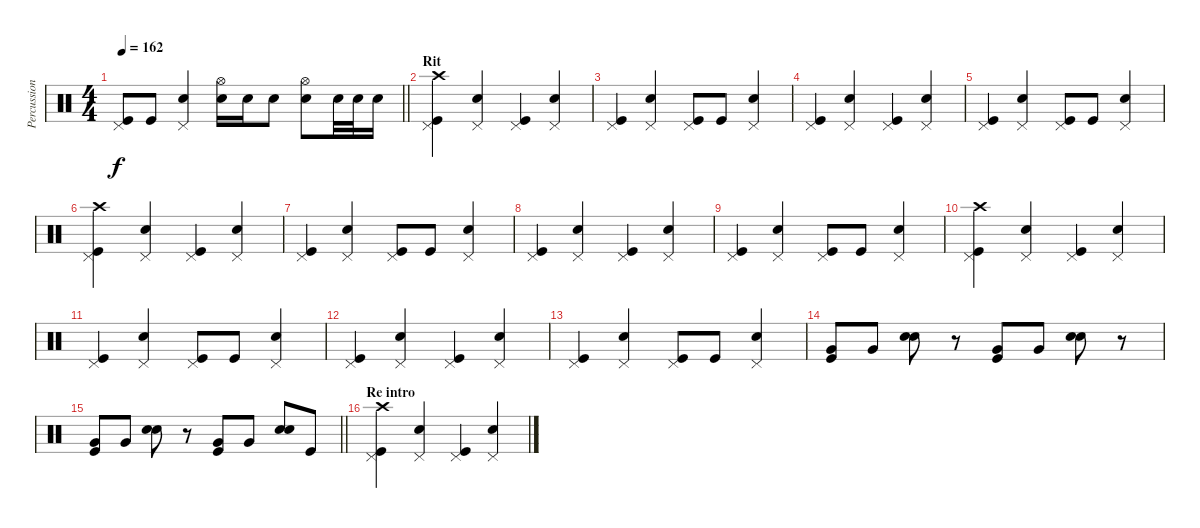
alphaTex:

\track ("Percussioni" "Percussion") {instrument percussion}
\staff {score}
\articulation defaults
\ts (4 4)
\tempo 162
\clef neutral
\barLineRight lightlight
\ks c
("Pedal Hi-Hat (hit)" "Kick (hit)").8{dy f} "Kick (hit)".8 ("Pedal Hi-Hat (hit)" "Snare (hit) 2").4 ("Snare (hit) 2" "Hi-Hat (open)").16 "Snare (hit) 2".16 "Snare (hit) 2".8 ("Snare (hit) 2" "Hi-Hat (open)").8 "Snare (hit) 2".32 "Snare (hit) 2".32 "Snare (hit) 2".16 |
\section ("" "Rit")
("Pedal Hi-Hat (hit)" "Kick (hit)" "Crash high (hit)").4 ("Pedal Hi-Hat (hit)" "Snare (hit) 2").4 ("Pedal Hi-Hat (hit)" "Kick (hit)").4 ("Pedal Hi-Hat (hit)" "Snare (hit) 2").4 |
("Pedal Hi-Hat (hit)" "Kick (hit)").4 ("Pedal Hi-Hat (hit)" "Snare (hit) 2").4 ("Pedal Hi-Hat (hit)" "Kick (hit)").8 "Kick (hit)".8 ("Pedal Hi-Hat (hit)" "Snare (hit) 2").4 |
("Pedal Hi-Hat (hit)" "Kick (hit)").4 ("Pedal Hi-Hat (hit)" "Snare (hit) 2").4 ("Pedal Hi-Hat (hit)" "Kick (hit)").4 ("Pedal Hi-Hat (hit)" "Snare (hit) 2").4 |
("Pedal Hi-Hat (hit)" "Kick (hit)").4 ("Pedal Hi-Hat (hit)" "Snare (hit) 2").4 ("Pedal Hi-Hat (hit)" "Kick (hit)").8 "Kick (hit)".8 ("Pedal Hi-Hat (hit)" "Snare (hit) 2").4 |
("Pedal Hi-Hat (hit)" "Kick (hit)" "Crash high (hit)").4 ("Pedal Hi-Hat (hit)" "Snare (hit) 2").4 ("Pedal Hi-Hat (hit)" "Kick (hit)").4 ("Pedal Hi-Hat (hit)" "Snare (hit) 2").4 |
("Pedal Hi-Hat (hit)" "Kick (hit)").4 ("Pedal Hi-Hat (hit)" "Snare (hit) 2").4 ("Pedal Hi-Hat (hit)" "Kick (hit)").8 "Kick (hit)".8 ("Pedal Hi-Hat (hit)" "Snare (hit) 2").4 |
("Pedal Hi-Hat (hit)" "Kick (hit)").4 ("Pedal Hi-Hat (hit)" "Snare (hit) 2").4 ("Pedal Hi-Hat (hit)" "Kick (hit)").4 ("Pedal Hi-Hat (hit)" "Snare (hit) 2").4 |
("Pedal Hi-Hat (hit)" "Kick (hit)").4 ("Pedal Hi-Hat (hit)" "Snare (hit) 2").4 ("Pedal Hi-Hat (hit)" "Kick (hit)").8 "Kick (hit)".8 ("Pedal Hi-Hat (hit)" "Snare (hit) 2").4 |
("Pedal Hi-Hat (hit)" "Kick (hit)" "Crash high (hit)").4 ("Pedal Hi-Hat (hit)" "Snare (hit) 2").4 ("Pedal Hi-Hat (hit)" "Kick (hit)").4 ("Pedal Hi-Hat (hit)" "Snare (hit) 2").4 |
("Pedal Hi-Hat (hit)" "Kick (hit)").4 ("Pedal Hi-Hat (hit)" "Snare (hit) 2").4 ("Pedal Hi-Hat (hit)" "Kick (hit)").8 "Kick (hit)".8 ("Pedal Hi-Hat (hit)" "Snare (hit) 2").4 |
("Pedal Hi-Hat (hit)" "Kick (hit)").4 ("Pedal Hi-Hat (hit)" "Snare (hit) 2").4 ("Pedal Hi-Hat (hit)" "Kick (hit)").4 ("Pedal Hi-Hat (hit)" "Snare (hit) 2").4 |
("Pedal Hi-Hat (hit)" "Kick (hit)").4 ("Pedal Hi-Hat (hit)" "Snare (hit) 2").4 ("Pedal Hi-Hat (hit)" "Kick (hit)").8 "Kick (hit)".8 ("Pedal Hi-Hat (hit)" "Snare (hit) 2").4 |
("Very Low Tom (hit)" "Kick (hit)").8 "Very Low Tom (hit)".8 ("Snare (hit) 2" "Snare (hit) 2").8 r.8 ("Very Low Tom (hit)" "Kick (hit)").8 "Very Low Tom (hit)".8 ("Snare (hit) 2" "Snare (hit) 2").8 r.8 |
\barLineRight lightlight
("Very Low Tom (hit)" "Kick (hit)").8 "Very Low Tom (hit)".8 ("Snare (hit) 2" "Snare (hit) 2").8 r.8 ("Very Low Tom (hit)" "Kick (hit)").8 "Very Low Tom (hit)".8 ("Snare (hit) 2" "Snare (hit) 2").8 "Kick (hit)".8 |
\section ("" "Re intro")
("Pedal Hi-Hat (hit)" "Kick (hit)" "Crash high (hit)").4 ("Pedal Hi-Hat (hit)" "Snare (hit) 2").4 ("Pedal Hi-Hat (hit)" "Kick (hit)").4 ("Pedal Hi-Hat (hit)" "Snare (hit) 2").4
